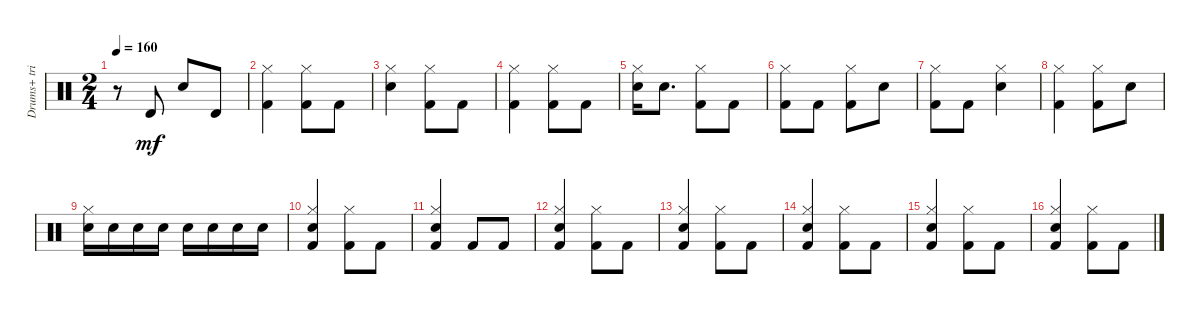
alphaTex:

\track ("Drums+ triangle" "Drums+ tri") {instrument percussion}
\staff {score}
\articulation defaults
\ts (2 4)
\tempo 160
\clef neutral
\ks c
r.8{dy mf} "Timbale high (hit)".8 "Snare (hit) 2".8 "Timbale high (hit)".8 |
("Hi-Hat (closed)" "Kick (hit) 2").4 ("Kick (hit) 2" "Hi-Hat (closed)").8 "Kick (hit) 2".8 |
("Hi-Hat (closed)" "Snare (hit) 2").4 ("Kick (hit) 2" "Hi-Hat (closed)").8 "Kick (hit) 2".8 |
("Hi-Hat (closed)" "Kick (hit) 2").4 ("Kick (hit) 2" "Hi-Hat (closed)").8 "Kick (hit) 2".8 |
("Hi-Hat (closed)" "Snare (hit) 2").16 "Snare (hit) 2".8{d} ("Hi-Hat (closed)" "Kick (hit) 2").8 "Kick (hit) 2".8 |
("Kick (hit) 2" "Hi-Hat (closed)").8 "Kick (hit) 2".8 ("Kick (hit) 2" "Hi-Hat (closed)").8 "Snare (hit) 2".8 |
("Kick (hit) 2" "Hi-Hat (closed)").8 "Kick (hit) 2".8 ("Hi-Hat (closed)" "Snare (hit) 2").4 |
("Kick (hit) 2" "Hi-Hat (closed)").4 ("Kick (hit) 2" "Hi-Hat (closed)").8 "Snare (hit) 2".8 |
("Hi-Hat (closed)" "Snare (hit) 2").16 "Snare (hit) 2".16 "Snare (hit) 2".16 "Snare (hit) 2".16 "Snare (hit) 2".16 "Snare (hit) 2".16 "Snare (hit) 2".16 "Snare (hit) 2".16 |
("Hi-Hat (closed)" "Snare (hit) 2" "Kick (hit) 2").4 ("Kick (hit) 2" "Hi-Hat (closed)").8 "Kick (hit) 2".8 |
("Hi-Hat (closed)" "Snare (hit) 2" "Kick (hit) 2").4 "Kick (hit) 2".8 "Kick (hit) 2".8 |
("Kick (hit) 2" "Snare (hit) 2" "Hi-Hat (closed)").4 ("Kick (hit) 2" "Hi-Hat (closed)").8 "Kick (hit) 2".8 |
("Kick (hit) 2" "Snare (hit) 2" "Hi-Hat (closed)").4 ("Kick (hit) 2" "Hi-Hat (closed)").8 "Kick (hit) 2".8 |
("Kick (hit) 2" "Snare (hit) 2" "Hi-Hat (closed)").4 ("Kick (hit) 2" "Hi-Hat (closed)").8 "Kick (hit) 2".8 |
("Kick (hit) 2" "Snare (hit) 2" "Hi-Hat (closed)").4 ("Kick (hit) 2" "Hi-Hat (closed)").8 "Kick (hit) 2".8 |
("Kick (hit) 2" "Snare (hit) 2" "Hi-Hat (closed)").4 ("Kick (hit) 2" "Hi-Hat (closed)").8 "Kick (hit) 2".8
